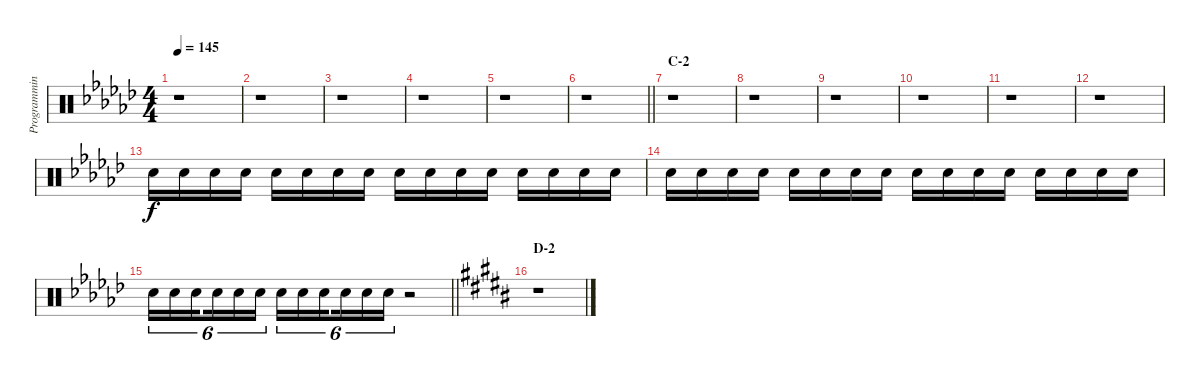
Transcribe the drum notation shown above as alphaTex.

\track ("Programming Drums II" "Programmin") {instrument percussion}
\staff {score}
\articulation defaults
\ts (4 4)
\tempo 145
\clef neutral
\ks gb
r.1{dy f} |
r.1 |
r.1 |
r.1 |
r.1 |
\barLineRight lightlight
r.1 |
\section ("" "C-2")
r.1 |
r.1 |
r.1 |
r.1 |
r.1 |
r.1 |
"Electric Snare (hit)".16 "Electric Snare (hit)".16 "Electric Snare (hit)".16 "Electric Snare (hit)".16 "Electric Snare (hit)".16 "Electric Snare (hit)".16 "Electric Snare (hit)".16 "Electric Snare (hit)".16 "Electric Snare (hit)".16 "Electric Snare (hit)".16 "Electric Snare (hit)".16 "Electric Snare (hit)".16 "Electric Snare (hit)".16 "Electric Snare (hit)".16 "Electric Snare (hit)".16 "Electric Snare (hit)".16 |
"Electric Snare (hit)".16 "Electric Snare (hit)".16 "Electric Snare (hit)".16 "Electric Snare (hit)".16 "Electric Snare (hit)".16 "Electric Snare (hit)".16 "Electric Snare (hit)".16 "Electric Snare (hit)".16 "Electric Snare (hit)".16 "Electric Snare (hit)".16 "Electric Snare (hit)".16 "Electric Snare (hit)".16 "Electric Snare (hit)".16 "Electric Snare (hit)".16 "Electric Snare (hit)".16 "Electric Snare (hit)".16 |
\barLineRight lightlight "Electric Snare (hit)".16{tu (6 4)} "Electric Snare (hit)".16{tu (6 4)} "Electric Snare (hit)".16{tu (6 4) beam splitsecondary} "Electric Snare (hit)".16{tu (6 4)} "Electric Snare (hit)".16{tu (6 4)} "Electric Snare (hit)".16{tu (6 4)} "Electric Snare (hit)".16{tu (6 4)} "Electric Snare (hit)".16{tu (6 4)} "Electric Snare (hit)".16{tu (6 4) beam splitsecondary} "Electric Snare (hit)".16{tu (6 4)} "Electric Snare (hit)".16{tu (6 4)} "Electric Snare (hit)".16{tu (6 4)}
r.2 |
\section ("" "D-2")
\ks b
r.1
